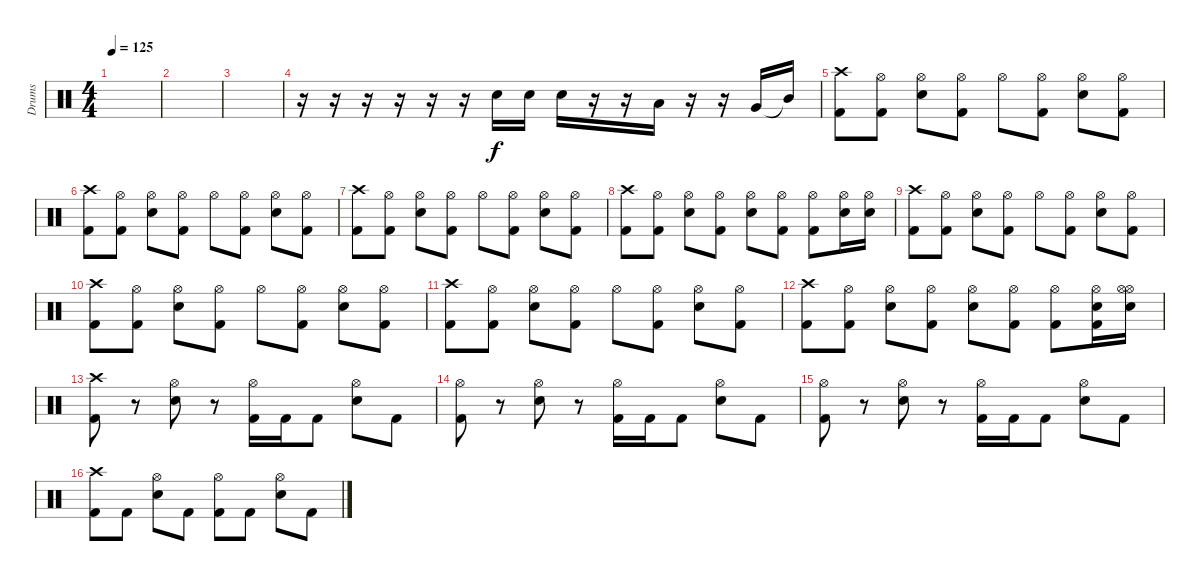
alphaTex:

\track ("Drums" "Drums") {instrument percussion}
\staff {score}
\articulation defaults
\ts (4 4)
\tempo 125
\clef neutral
\ks c
|
|
|
r.16 r.16 r.16 r.16 r.16 r.16 "Electric Snare (hit)".16 "Electric Snare (hit)".16 "Electric Snare (hit)".16 r.16 r.16 "Low Tom (hit)".16 r.16 r.16 "Very Low Tom (hit)".16 "Mid Tom (hit)"{t}.16 |
("Kick (hit) 2" "Crash high (hit)").8 ("Kick (hit) 2" "Hi-Hat (open)").8 ("Electric Snare (hit)" "Hi-Hat (open)").8 ("Kick (hit) 2" "Hi-Hat (open)").8 "Hi-Hat (open)".8 ("Kick (hit) 2" "Hi-Hat (open)").8 ("Electric Snare (hit)" "Hi-Hat (open)").8 ("Kick (hit) 2" "Hi-Hat (open)").8 |
("Kick (hit) 2" "Crash high (hit)").8 ("Kick (hit) 2" "Hi-Hat (open)").8 ("Electric Snare (hit)" "Hi-Hat (open)").8 ("Kick (hit) 2" "Hi-Hat (open)").8 "Hi-Hat (open)".8 ("Kick (hit) 2" "Hi-Hat (open)").8 ("Electric Snare (hit)" "Hi-Hat (open)").8 ("Kick (hit) 2" "Hi-Hat (open)").8 |
("Kick (hit) 2" "Crash high (hit)").8 ("Kick (hit) 2" "Hi-Hat (open)").8 ("Electric Snare (hit)" "Hi-Hat (open)").8 ("Kick (hit) 2" "Hi-Hat (open)").8 "Hi-Hat (open)".8 ("Kick (hit) 2" "Hi-Hat (open)").8 ("Electric Snare (hit)" "Hi-Hat (open)").8 ("Kick (hit) 2" "Hi-Hat (open)").8 |
("Kick (hit) 2" "Crash high (hit)").8 ("Kick (hit) 2" "Hi-Hat (open)").8 ("Electric Snare (hit)" "Hi-Hat (open)").8 ("Kick (hit) 2" "Hi-Hat (open)").8 ("Electric Snare (hit)" "Hi-Hat (open)").8 ("Kick (hit) 2" "Hi-Hat (open)").8 ("Kick (hit) 2" "Hi-Hat (open)").8 ("Electric Snare (hit)" "Hi-Hat (open)").16 ("Electric Snare (hit)" "Hi-Hat (open)").16 |
("Kick (hit) 2" "Crash high (hit)").8 ("Kick (hit) 2" "Hi-Hat (open)").8 ("Electric Snare (hit)" "Hi-Hat (open)").8 ("Kick (hit) 2" "Hi-Hat (open)").8 "Hi-Hat (open)".8 ("Kick (hit) 2" "Hi-Hat (open)").8 ("Electric Snare (hit)" "Hi-Hat (open)").8 ("Kick (hit) 2" "Hi-Hat (open)").8 |
("Kick (hit) 2" "Crash high (hit)").8 ("Kick (hit) 2" "Hi-Hat (open)").8 ("Electric Snare (hit)" "Hi-Hat (open)").8 ("Kick (hit) 2" "Hi-Hat (open)").8 "Hi-Hat (open)".8 ("Kick (hit) 2" "Hi-Hat (open)").8 ("Electric Snare (hit)" "Hi-Hat (open)").8 ("Kick (hit) 2" "Hi-Hat (open)").8 |
("Kick (hit) 2" "Crash high (hit)").8 ("Kick (hit) 2" "Hi-Hat (open)").8 ("Electric Snare (hit)" "Hi-Hat (open)").8 ("Kick (hit) 2" "Hi-Hat (open)").8 "Hi-Hat (open)".8 ("Kick (hit) 2" "Hi-Hat (open)").8 ("Electric Snare (hit)" "Hi-Hat (open)").8 ("Kick (hit) 2" "Hi-Hat (open)").8 |
("Kick (hit) 2" "Crash high (hit)").8 ("Kick (hit) 2" "Hi-Hat (open)").8 ("Electric Snare (hit)" "Hi-Hat (open)").8 ("Kick (hit) 2" "Hi-Hat (open)").8 ("Electric Snare (hit)" "Hi-Hat (open)").8 ("Kick (hit) 2" "Hi-Hat (open)").8 ("Kick (hit) 2" "Hi-Hat (open)").8 ("Kick (hit) 2" "Electric Snare (hit)" "Hi-Hat (open)").16 ("Hi-Hat (open)" "Electric Snare (hit)" "Hi-Hat (open)").16 |
("Kick (hit) 2" "Crash high (hit)").8 r.8 ("Electric Snare (hit)" "Hi-Hat (open)").8 r.8 ("Kick (hit) 2" "Hi-Hat (open)").16 "Kick (hit) 2".16 "Kick (hit) 2".8 ("Electric Snare (hit)" "Hi-Hat (open)").8 "Kick (hit) 2".8 |
("Kick (hit) 2" "Hi-Hat (open)").8 r.8 ("Electric Snare (hit)" "Hi-Hat (open)").8 r.8 ("Kick (hit) 2" "Hi-Hat (open)").16 "Kick (hit) 2".16 "Kick (hit) 2".8 ("Electric Snare (hit)" "Hi-Hat (open)").8 "Kick (hit) 2".8 |
("Kick (hit) 2" "Hi-Hat (open)").8 r.8 ("Electric Snare (hit)" "Hi-Hat (open)").8 r.8 ("Kick (hit) 2" "Hi-Hat (open)").16 "Kick (hit) 2".16 "Kick (hit) 2".8 ("Electric Snare (hit)" "Hi-Hat (open)").8 "Kick (hit) 2".8 |
("Kick (hit) 2" "Crash high (hit)").8 "Kick (hit) 2".8 ("Electric Snare (hit)" "Hi-Hat (open)").8 "Kick (hit) 2".8 ("Kick (hit) 2" "Hi-Hat (open)").8 "Kick (hit) 2".8 ("Electric Snare (hit)" "Hi-Hat (open)").8 "Kick (hit) 2".8
